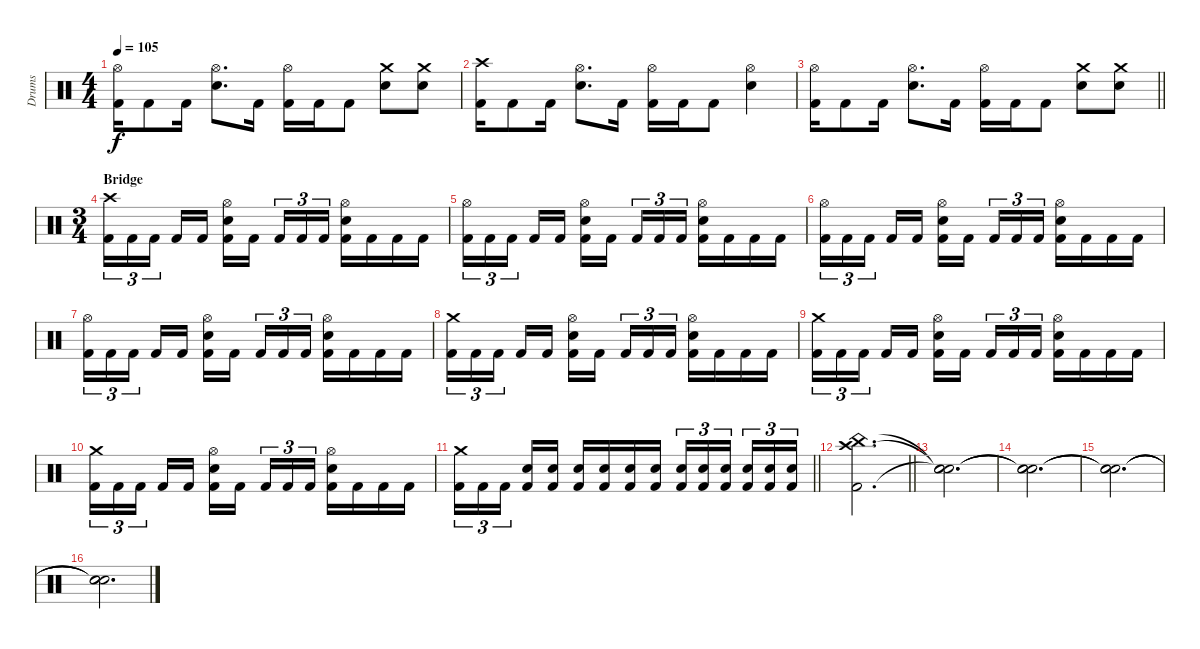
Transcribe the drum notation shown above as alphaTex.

\track ("Drums" "Drums") {instrument percussion}
\staff {score}
\articulation defaults
\ts (4 4)
\tempo 105
\clef neutral
\ks c
("Hi-Hat (open)" "Kick (hit) 2").16{dy f} "Kick (hit) 2".8 "Kick (hit) 2".16 ("Hi-Hat (open)" "Electric Snare (hit)").8{d} "Kick (hit) 2".16 ("Hi-Hat (open)" "Kick (hit) 2").16 "Kick (hit) 2".16 "Kick (hit) 2".8 ("Crash medium (hit)" "Electric Snare (hit)").8 ("Crash medium (hit)" "Electric Snare (hit)").8 |
("Crash high (hit)" "Kick (hit) 2").16 "Kick (hit) 2".8 "Kick (hit) 2".16 ("Hi-Hat (open)" "Electric Snare (hit)").8{d} "Kick (hit) 2".16 ("Hi-Hat (open)" "Kick (hit) 2").16 "Kick (hit) 2".16 "Kick (hit) 2".8 ("Hi-Hat (open)" "Electric Snare (hit)").4 |
\barLineRight lightlight
("Hi-Hat (open)" "Kick (hit) 2").16 "Kick (hit) 2".8 "Kick (hit) 2".16 ("Hi-Hat (open)" "Electric Snare (hit)").8{d} "Kick (hit) 2".16 ("Hi-Hat (open)" "Kick (hit) 2").16 "Kick (hit) 2".16 "Kick (hit) 2".8 ("Crash medium (hit)" "Electric Snare (hit)").8 ("Crash medium (hit)" "Electric Snare (hit)").8 |
\ts (3 4)
\section ("" "Bridge")
("Crash high (hit)" "Kick (hit) 2").16{tu (3 2)} "Kick (hit) 2".16{tu (3 2)} "Kick (hit) 2".16{tu (3 2) beam splitsecondary} "Kick (hit) 2".16 "Kick (hit) 2".16 ("Hi-Hat (open)" "Electric Snare (hit)" "Kick (hit) 2").16 "Kick (hit) 2".16{beam splitsecondary} "Kick (hit) 2".16{tu (3 2)} "Kick (hit) 2".16{tu (3 2)} "Kick (hit) 2".16{tu (3 2)} ("Hi-Hat (open)" "Electric Snare (hit)" "Kick (hit) 2").16 "Kick (hit) 2".16 "Kick (hit) 2".16 "Kick (hit) 2".16 |
("Hi-Hat (open)" "Kick (hit) 2").16{tu (3 2)} "Kick (hit) 2".16{tu (3 2)} "Kick (hit) 2".16{tu (3 2) beam splitsecondary} "Kick (hit) 2".16 "Kick (hit) 2".16 ("Hi-Hat (open)" "Electric Snare (hit)" "Kick (hit) 2").16 "Kick (hit) 2".16{beam splitsecondary} "Kick (hit) 2".16{tu (3 2)} "Kick (hit) 2".16{tu (3 2)} "Kick (hit) 2".16{tu (3 2)} ("Hi-Hat (open)" "Electric Snare (hit)" "Kick (hit) 2").16 "Kick (hit) 2".16 "Kick (hit) 2".16 "Kick (hit) 2".16 |
("Hi-Hat (open)" "Kick (hit) 2").16{tu (3 2)} "Kick (hit) 2".16{tu (3 2)} "Kick (hit) 2".16{tu (3 2) beam splitsecondary} "Kick (hit) 2".16 "Kick (hit) 2".16 ("Hi-Hat (open)" "Electric Snare (hit)" "Kick (hit) 2").16 "Kick (hit) 2".16{beam splitsecondary} "Kick (hit) 2".16{tu (3 2)} "Kick (hit) 2".16{tu (3 2)} "Kick (hit) 2".16{tu (3 2)} ("Hi-Hat (open)" "Electric Snare (hit)" "Kick (hit) 2").16 "Kick (hit) 2".16 "Kick (hit) 2".16 "Kick (hit) 2".16 |
("Hi-Hat (open)" "Kick (hit) 2").16{tu (3 2)} "Kick (hit) 2".16{tu (3 2)} "Kick (hit) 2".16{tu (3 2) beam splitsecondary} "Kick (hit) 2".16 "Kick (hit) 2".16 ("Hi-Hat (open)" "Electric Snare (hit)" "Kick (hit) 2").16 "Kick (hit) 2".16{beam splitsecondary} "Kick (hit) 2".16{tu (3 2)} "Kick (hit) 2".16{tu (3 2)} "Kick (hit) 2".16{tu (3 2)} ("Hi-Hat (open)" "Electric Snare (hit)" "Kick (hit) 2").16 "Kick (hit) 2".16 "Kick (hit) 2".16 "Kick (hit) 2".16 |
("Crash medium (hit)" "Kick (hit) 2").16{tu (3 2)} "Kick (hit) 2".16{tu (3 2)} "Kick (hit) 2".16{tu (3 2) beam splitsecondary} "Kick (hit) 2".16 "Kick (hit) 2".16 ("Hi-Hat (open)" "Electric Snare (hit)" "Kick (hit) 2").16 "Kick (hit) 2".16{beam splitsecondary} "Kick (hit) 2".16{tu (3 2)} "Kick (hit) 2".16{tu (3 2)} "Kick (hit) 2".16{tu (3 2)} ("Hi-Hat (open)" "Electric Snare (hit)" "Kick (hit) 2").16 "Kick (hit) 2".16 "Kick (hit) 2".16 "Kick (hit) 2".16 |
("Crash medium (hit)" "Kick (hit) 2").16{tu (3 2)} "Kick (hit) 2".16{tu (3 2)} "Kick (hit) 2".16{tu (3 2) beam splitsecondary} "Kick (hit) 2".16 "Kick (hit) 2".16 ("Hi-Hat (open)" "Electric Snare (hit)" "Kick (hit) 2").16 "Kick (hit) 2".16{beam splitsecondary} "Kick (hit) 2".16{tu (3 2)} "Kick (hit) 2".16{tu (3 2)} "Kick (hit) 2".16{tu (3 2)} ("Hi-Hat (open)" "Electric Snare (hit)" "Kick (hit) 2").16 "Kick (hit) 2".16 "Kick (hit) 2".16 "Kick (hit) 2".16 |
("Crash medium (hit)" "Kick (hit) 2").16{tu (3 2)} "Kick (hit) 2".16{tu (3 2)} "Kick (hit) 2".16{tu (3 2) beam splitsecondary} "Kick (hit) 2".16 "Kick (hit) 2".16 ("Hi-Hat (open)" "Electric Snare (hit)" "Kick (hit) 2").16 "Kick (hit) 2".16{beam splitsecondary} "Kick (hit) 2".16{tu (3 2)} "Kick (hit) 2".16{tu (3 2)} "Kick (hit) 2".16{tu (3 2)} ("Hi-Hat (open)" "Electric Snare (hit)" "Kick (hit) 2").16 "Kick (hit) 2".16 "Kick (hit) 2".16 "Kick (hit) 2".16 |
\barLineRight lightlight
("Crash medium (hit)" "Kick (hit) 2").16{tu (3 2)} "Kick (hit) 2".16{tu (3 2)} "Kick (hit) 2".16{tu (3 2) beam splitsecondary} ("Electric Snare (hit)" "Kick (hit) 2").16 ("Electric Snare (hit)" "Kick (hit) 2").16 ("Electric Snare (hit)" "Kick (hit) 2").16 ("Electric Snare (hit)" "Kick (hit) 2").16 ("Electric Snare (hit)" "Kick (hit) 2").16 ("Electric Snare (hit)" "Kick (hit) 2").16 ("Electric Snare (hit)" "Kick (hit) 2").16{tu (3 2)} ("Electric Snare (hit)" "Kick (hit) 2").16{tu (3 2)} ("Electric Snare (hit)" "Kick (hit) 2").16{tu (3 2) beam splitsecondary} ("Electric Snare (hit)" "Kick (hit) 2").16{tu (3 2)} ("Electric Snare (hit)" "Kick (hit) 2").16{tu (3 2)} ("Electric Snare (hit)" "Kick (hit) 2").16{tu (3 2)} |
\barLineRight lightlight
("Crash high (hit)" "China (hit)" "Kick (hit) 2").2{d} |
("Snare (hit)"{t} "Snare (hit)"{t} "Snare (hit)"{t}).2{d} |
("Snare (hit)"{t} "Snare (hit)"{t} "Snare (hit)"{t}).2{d} |
("Snare (hit)"{t} "Snare (hit)"{t} "Snare (hit)"{t}).2{d} |
("Snare (hit)"{t} "Snare (hit)"{t} "Snare (hit)"{t}).2{d}
